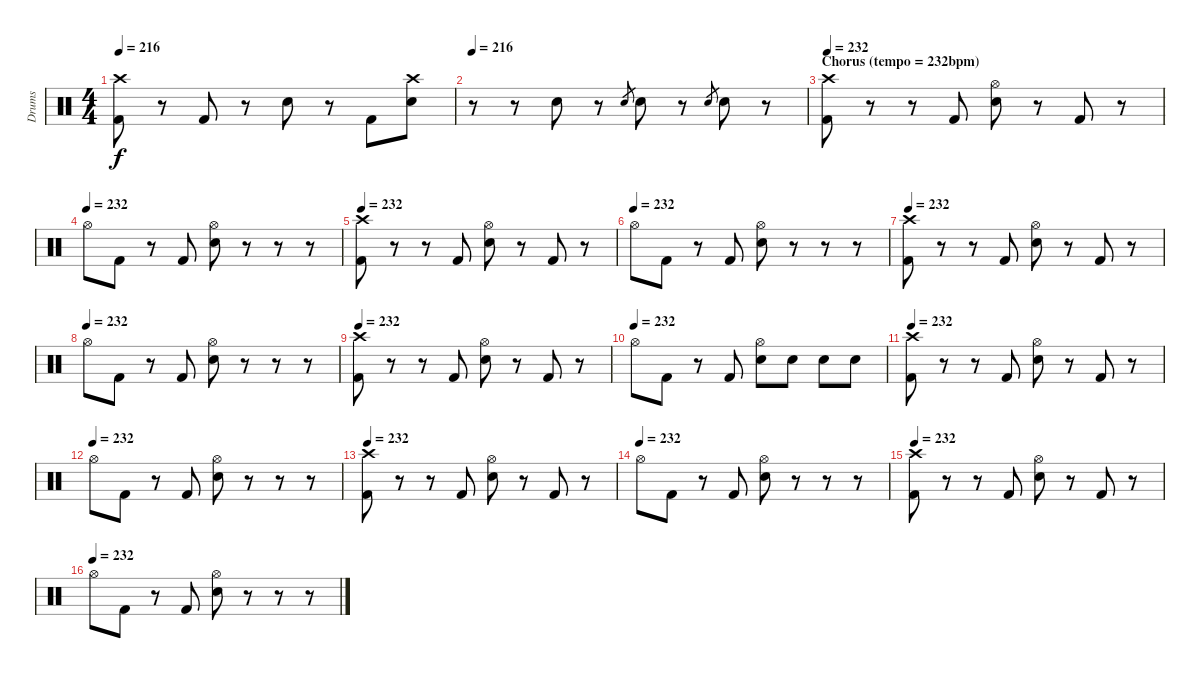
\track ("Drums" "Drums") {instrument percussion}
\staff {score}
\articulation defaults
\ts (4 4)
\tempo 216
\clef neutral
\ks c
("Crash high (hit)" "Kick (hit) 2").8{dy f} r.8 "Kick (hit) 2".8 r.8 "Snare (hit) 2".8 r.8 "Kick (hit) 2".8 ("Crash high (hit)" "Snare (hit) 2").8 |
\tempo 216
r.8 r.8 "Snare (hit) 2".8 r.8 "Snare (hit) 2".8{gr} "Snare (hit) 2".8 r.8 "Snare (hit) 2".8{gr} "Snare (hit) 2".8 r.8 |
\section ("" "Chorus (tempo = 232bpm)")
\tempo 232
("Crash high (hit)" "Kick (hit) 2").8 r.8 r.8 "Kick (hit) 2".8 ("Hi-Hat (open)" "Snare (hit) 2").8 r.8 "Kick (hit) 2".8 r.8 |
\tempo (232)
"Hi-Hat (open)".8 "Kick (hit) 2".8 r.8 "Kick (hit) 2".8 ("Hi-Hat (open)" "Snare (hit) 2").8 r.8 r.8 r.8 |
\tempo 232
("Crash high (hit)" "Kick (hit) 2").8 r.8 r.8 "Kick (hit) 2".8 ("Hi-Hat (open)" "Snare (hit) 2").8 r.8 "Kick (hit) 2".8 r.8 |
\tempo (232)
"Hi-Hat (open)".8 "Kick (hit) 2".8 r.8 "Kick (hit) 2".8 ("Hi-Hat (open)" "Snare (hit) 2").8 r.8 r.8 r.8 |
\tempo 232
("Crash high (hit)" "Kick (hit) 2").8 r.8 r.8 "Kick (hit) 2".8 ("Hi-Hat (open)" "Snare (hit) 2").8 r.8 "Kick (hit) 2".8 r.8 |
\tempo (232)
"Hi-Hat (open)".8 "Kick (hit) 2".8 r.8 "Kick (hit) 2".8 ("Hi-Hat (open)" "Snare (hit) 2").8 r.8 r.8 r.8 |
\tempo 232
("Crash high (hit)" "Kick (hit) 2").8 r.8 r.8 "Kick (hit) 2".8 ("Hi-Hat (open)" "Snare (hit) 2").8 r.8 "Kick (hit) 2".8 r.8 |
\tempo (232)
"Hi-Hat (open)".8 "Kick (hit) 2".8 r.8 "Kick (hit) 2".8 ("Hi-Hat (open)" "Snare (hit) 2").8 "Snare (hit) 2".8 "Snare (hit) 2".8 "Snare (hit) 2".8 |
\tempo 232
("Crash high (hit)" "Kick (hit) 2").8 r.8 r.8 "Kick (hit) 2".8 ("Hi-Hat (open)" "Snare (hit) 2").8 r.8 "Kick (hit) 2".8 r.8 |
\tempo (232)
"Hi-Hat (open)".8 "Kick (hit) 2".8 r.8 "Kick (hit) 2".8 ("Hi-Hat (open)" "Snare (hit) 2").8 r.8 r.8 r.8 |
\tempo 232
("Crash high (hit)" "Kick (hit) 2").8 r.8 r.8 "Kick (hit) 2".8 ("Hi-Hat (open)" "Snare (hit) 2").8 r.8 "Kick (hit) 2".8 r.8 |
\tempo (232)
"Hi-Hat (open)".8 "Kick (hit) 2".8 r.8 "Kick (hit) 2".8 ("Hi-Hat (open)" "Snare (hit) 2").8 r.8 r.8 r.8 |
\tempo 232
("Crash high (hit)" "Kick (hit) 2").8 r.8 r.8 "Kick (hit) 2".8 ("Hi-Hat (open)" "Snare (hit) 2").8 r.8 "Kick (hit) 2".8 r.8 |
\tempo (232)
"Hi-Hat (open)".8 "Kick (hit) 2".8 r.8 "Kick (hit) 2".8 ("Hi-Hat (open)" "Snare (hit) 2").8 r.8 r.8 r.8
